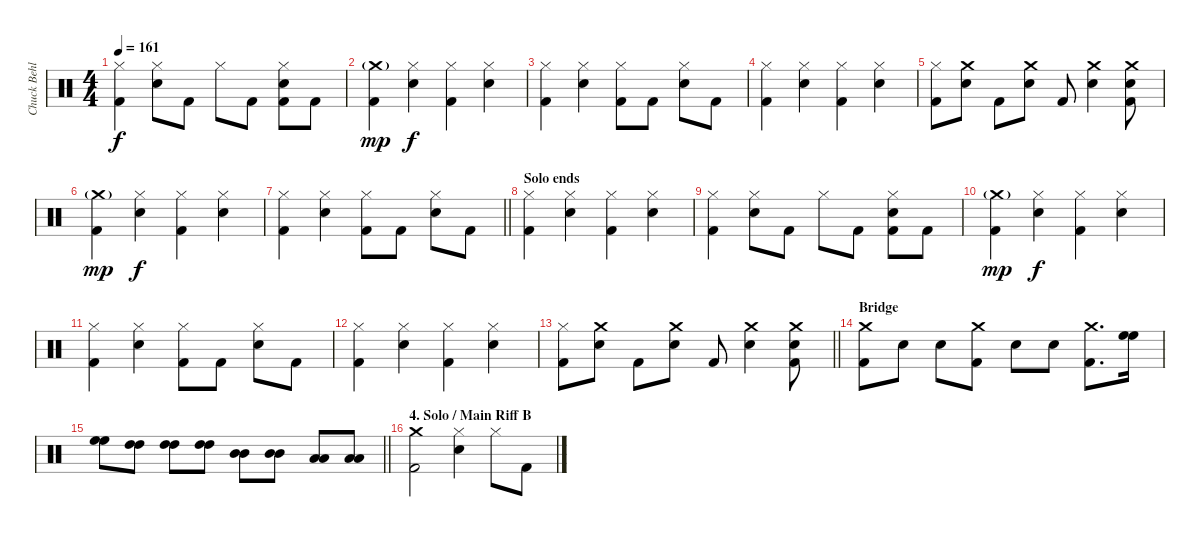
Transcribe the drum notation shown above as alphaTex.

\track ("Chuck Behler" "Chuck Behl") {instrument percussion}
\staff {score}
\articulation defaults
\ts (4 4)
\tempo 161
\clef neutral
\ks c
("Hi-Hat (closed)" "Kick (hit) 2").4{dy f} ("Hi-Hat (closed)" "Snare (hit) 2").8 "Kick (hit) 2".8 "Hi-Hat (closed)".8 "Kick (hit) 2".8 ("Hi-Hat (closed)" "Snare (hit) 2" "Kick (hit) 2").8 "Kick (hit) 2".8 |
("Crash medium (hit)"{g} "Kick (hit) 2").4{dy mp} ("Hi-Hat (closed)" "Snare (hit) 2").4{dy f} ("Hi-Hat (closed)" "Kick (hit) 2").4 ("Hi-Hat (closed)" "Snare (hit) 2").4 |
("Hi-Hat (closed)" "Kick (hit) 2").4 ("Hi-Hat (closed)" "Snare (hit) 2").4 ("Hi-Hat (closed)" "Kick (hit) 2").8 "Kick (hit) 2".8 ("Hi-Hat (closed)" "Snare (hit) 2").8 "Kick (hit) 2".8 |
("Hi-Hat (closed)" "Kick (hit) 2").4 ("Hi-Hat (closed)" "Snare (hit) 2").4 ("Hi-Hat (closed)" "Kick (hit) 2").4 ("Hi-Hat (closed)" "Snare (hit) 2").4 |
("Hi-Hat (closed)" "Kick (hit) 2").8 ("Crash medium (hit)" "Snare (hit) 2").8 "Kick (hit) 2".8 ("Crash medium (hit)" "Snare (hit) 2").8 "Kick (hit) 2".8 ("Crash medium (hit)" "Snare (hit) 2").4 ("Crash medium (hit)" "Snare (hit) 2" "Kick (hit) 2").8 |
("Crash medium (hit)"{g} "Kick (hit) 2").4{dy mp} ("Hi-Hat (closed)" "Snare (hit) 2").4{dy f} ("Hi-Hat (closed)" "Kick (hit) 2").4 ("Hi-Hat (closed)" "Snare (hit) 2").4 |
\barLineRight lightlight
("Hi-Hat (closed)" "Kick (hit) 2").4 ("Hi-Hat (closed)" "Snare (hit) 2").4 ("Hi-Hat (closed)" "Kick (hit) 2").8 "Kick (hit) 2".8 ("Hi-Hat (closed)" "Snare (hit) 2").8 "Kick (hit) 2".8 |
\section ("" "Solo ends")
("Hi-Hat (closed)" "Kick (hit) 2").4 ("Hi-Hat (closed)" "Snare (hit) 2").4 ("Hi-Hat (closed)" "Kick (hit) 2").4 ("Hi-Hat (closed)" "Snare (hit) 2").4 |
("Hi-Hat (closed)" "Kick (hit) 2").4 ("Hi-Hat (closed)" "Snare (hit) 2").8 "Kick (hit) 2".8 "Hi-Hat (closed)".8 "Kick (hit) 2".8 ("Hi-Hat (closed)" "Snare (hit) 2" "Kick (hit) 2").8 "Kick (hit) 2".8 |
("Crash medium (hit)"{g} "Kick (hit) 2").4{dy mp} ("Hi-Hat (closed)" "Snare (hit) 2").4{dy f} ("Hi-Hat (closed)" "Kick (hit) 2").4 ("Hi-Hat (closed)" "Snare (hit) 2").4 |
("Hi-Hat (closed)" "Kick (hit) 2").4 ("Hi-Hat (closed)" "Snare (hit) 2").4 ("Hi-Hat (closed)" "Kick (hit) 2").8 "Kick (hit) 2".8 ("Hi-Hat (closed)" "Snare (hit) 2").8 "Kick (hit) 2".8 |
("Hi-Hat (closed)" "Kick (hit) 2").4 ("Hi-Hat (closed)" "Snare (hit) 2").4 ("Hi-Hat (closed)" "Kick (hit) 2").4 ("Hi-Hat (closed)" "Snare (hit) 2").4 |
\barLineRight lightlight
("Hi-Hat (closed)" "Kick (hit) 2").8 ("Crash medium (hit)" "Snare (hit) 2").8 "Kick (hit) 2".8 ("Crash medium (hit)" "Snare (hit) 2").8 "Kick (hit) 2".8 ("Crash medium (hit)" "Snare (hit) 2").4 ("Crash medium (hit)" "Snare (hit) 2" "Kick (hit) 2").8 |
\section ("" "Bridge")
("Crash medium (hit)" "Kick (hit) 2").8 "Snare (hit) 2".8 "Snare (hit) 2".8 ("Crash medium (hit)" "Kick (hit) 2").8 "Snare (hit) 2".8 "Snare (hit) 2".8 ("Crash medium (hit)" "Kick (hit) 2").8{d} ("High Floor Tom (hit)" "High Floor Tom (hit)").16 |
\barLineRight lightlight
("High Floor Tom (hit)" "High Floor Tom (hit)").8 ("High Tom (hit)" "High Tom (hit)").8 ("High Tom (hit)" "High Tom (hit)").8 ("High Tom (hit)" "High Tom (hit)").8 ("Mid Tom (hit)" "Mid Tom (hit)").8 ("Mid Tom (hit)" "Mid Tom (hit)").8 ("Low Tom (hit)" "Low Tom (hit)").8 ("Low Tom (hit)" "Low Tom (hit)").8 |
\section ("" "4. Solo / Main Riff B")
("Crash medium (hit)" "Kick (hit) 2").2 ("Hi-Hat (closed)" "Snare (hit) 2").4 "Hi-Hat (closed)".8 "Kick (hit) 2".8
